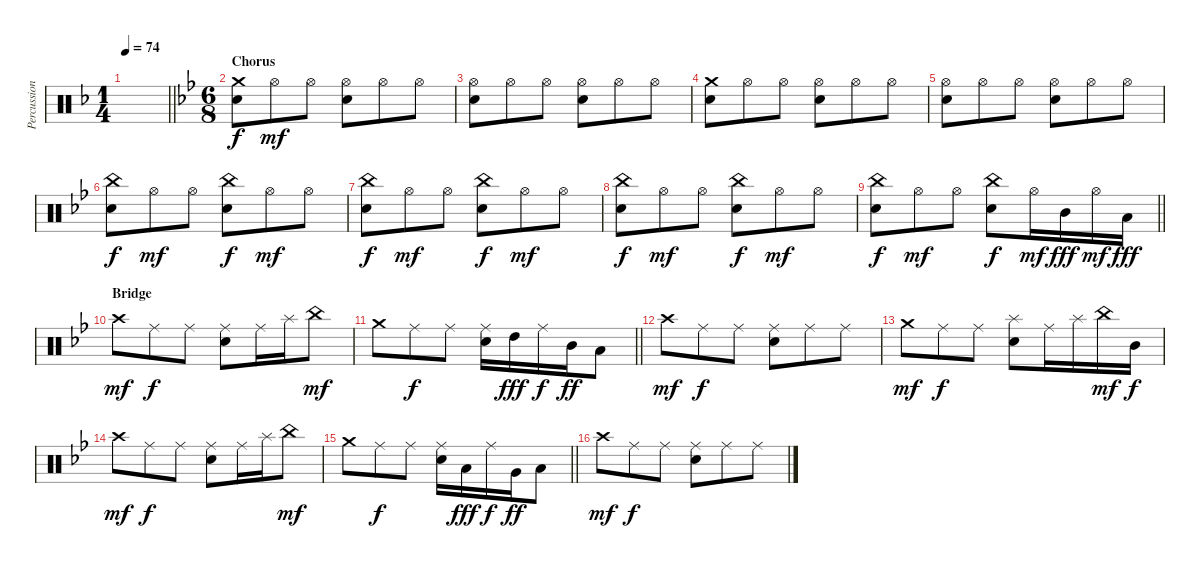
\track ("Percussion" "Percussion") {instrument percussion}
\staff {score}
\articulation defaults
\ts (1 4)
\tempo 74
\clef neutral
\barLineRight lightlight
\ks f
|
\ts (6 8)
\section ("" "Chorus")
\ks bb
("Crash medium (hit)" "Electric Snare (hit)").8 "Hi-Hat (open)".8{dy mf} "Hi-Hat (open)".8 ("Hi-Hat (open)" "Electric Snare (hit)").8 "Hi-Hat (open)".8 "Hi-Hat (open)".8 |
("Hi-Hat (open)" "Electric Snare (hit)").8 "Hi-Hat (open)".8 "Hi-Hat (open)".8 ("Hi-Hat (open)" "Electric Snare (hit)").8 "Hi-Hat (open)".8 "Hi-Hat (open)".8 |
("Crash medium (hit)" "Electric Snare (hit)").8 "Hi-Hat (open)".8 "Hi-Hat (open)".8 ("Hi-Hat (open)" "Electric Snare (hit)").8 "Hi-Hat (open)".8 "Hi-Hat (open)".8 |
("Hi-Hat (open)" "Electric Snare (hit)").8 "Hi-Hat (open)".8 "Hi-Hat (open)".8 ("Hi-Hat (open)" "Electric Snare (hit)").8 "Hi-Hat (open)".8 "Hi-Hat (open)".8 |
("China (hit)" "Electric Snare (hit)").8{dy f} "Hi-Hat (open)".8{dy mf} "Hi-Hat (open)".8 ("China (hit)" "Electric Snare (hit)").8{dy f} "Hi-Hat (open)".8{dy mf} "Hi-Hat (open)".8 |
("China (hit)" "Electric Snare (hit)").8{dy f} "Hi-Hat (open)".8{dy mf} "Hi-Hat (open)".8 ("China (hit)" "Electric Snare (hit)").8{dy f} "Hi-Hat (open)".8{dy mf} "Hi-Hat (open)".8 |
("China (hit)" "Electric Snare (hit)").8{dy f} "Hi-Hat (open)".8{dy mf} "Hi-Hat (open)".8 ("China (hit)" "Electric Snare (hit)").8{dy f} "Hi-Hat (open)".8{dy mf} "Hi-Hat (open)".8 |
\barLineRight lightlight
("China (hit)" "Electric Snare (hit)").8{dy f} "Hi-Hat (open)".8{dy mf} "Hi-Hat (open)".8 ("China (hit)" "Electric Snare (hit)").8{dy f} "Hi-Hat (open)".16{dy mf} "Mid Tom (hit)".16{dy fff} "Hi-Hat (open)".16{dy mf} "Low Tom (hit)".16{dy fff} |
\section ("" "Bridge")
"Crash high (hit)".8{dy mf} "Ride (middle)".8{dy f} "Ride (middle)".8 ("Ride (middle)" "Electric Snare (hit)").8 "Ride (middle)".16 "Splash (hit)".16 "China (hit)".8{dy mf} |
\barLineRight lightlight "Crash medium (hit)".8 "Ride (middle)".8{dy f} "Ride (middle)".8
("Ride (middle)" "Electric Snare (hit)").16 "High Tom (hit)".16{dy fff} "Ride (middle)".16{dy f} "Mid Tom (hit)".16{dy ff} "Low Tom (hit)".8 |
"Crash high (hit)".8{dy mf} "Ride (middle)".8{dy f} "Ride (middle)".8 ("Ride (middle)" "Electric Snare (hit)").8 "Ride (middle)".8 "Ride (middle)".8 |
"Crash medium (hit)".8{dy mf} "Ride (middle)".8{dy f} "Ride (middle)".8 ("Splash (hit)" "Electric Snare (hit)").8 "Ride (middle)".16 "Splash (hit)".16 "China (hit)".16{dy mf} "Mid Tom (hit)".16{dy f} |
"Crash high (hit)".8{dy mf} "Ride (middle)".8{dy f} "Ride (middle)".8 ("Ride (middle)" "Electric Snare (hit)").8 "Ride (middle)".16 "Splash (hit)".16 "China (hit)".8{dy mf} |
\barLineRight lightlight "Crash medium (hit)".8 "Ride (middle)".8{dy f} "Ride (middle)".8
("Ride (middle)" "Electric Snare (hit)").16 "Low Tom (hit)".16{dy fff} "Ride (middle)".16{dy f} "Very Low Tom (hit)".16{dy ff} "Low Floor Tom (hit)".8 |
"Crash high (hit)".8{dy mf} "Ride (middle)".8{dy f} "Ride (middle)".8 ("Ride (middle)" "Electric Snare (hit)").8 "Ride (middle)".8 "Ride (middle)".8
